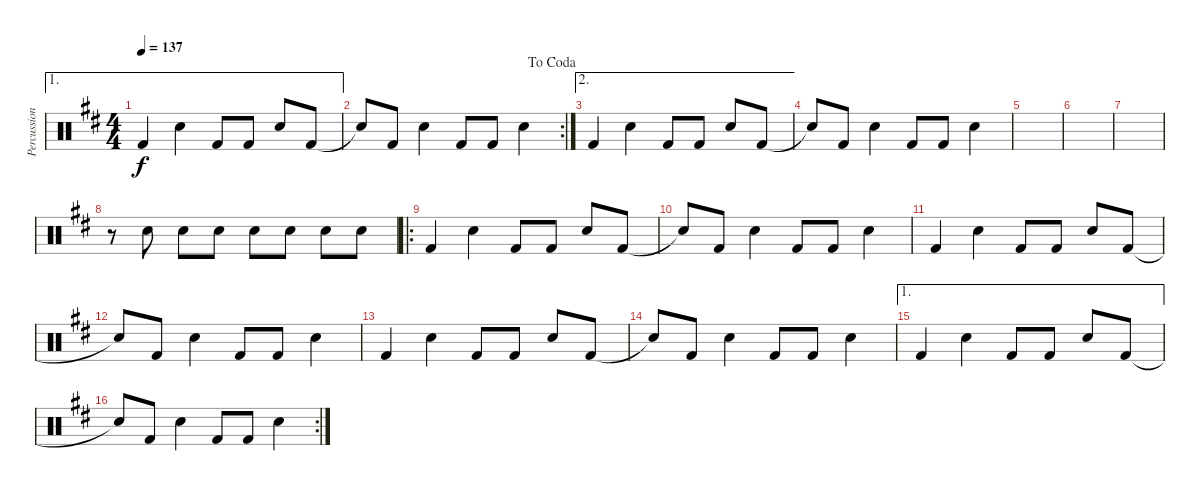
\track ("Percussion" "Percussion") {instrument percussion}
\staff {score}
\articulation defaults
\ae 1
\ts (4 4)
\tempo 137
\clef neutral
\ks d "Kick (hit) 2".4{dy f} "Electric Snare (hit)".4 "Kick (hit) 2".8 "Kick (hit) 2".8 "Electric Snare (hit)".8 "Kick (hit) 2".8
|
\rc 2
\jump dacoda "Snare (hit)"{t}.8 "Kick (hit) 2".8 "Electric Snare (hit)".4 "Kick (hit) 2".8 "Kick (hit) 2".8 "Electric Snare (hit)".4
|
\ae 2 "Kick (hit) 2".4 "Electric Snare (hit)".4 "Kick (hit) 2".8 "Kick (hit) 2".8 "Electric Snare (hit)".8 "Kick (hit) 2".8
|
"Snare (hit)"{t}.8 "Kick (hit) 2".8 "Electric Snare (hit)".4 "Kick (hit) 2".8 "Kick (hit) 2".8 "Electric Snare (hit)".4 |
|
|
|
r.8 "Electric Snare (hit)".8 "Electric Snare (hit)".8 "Electric Snare (hit)".8 "Electric Snare (hit)".8 "Electric Snare (hit)".8 "Electric Snare (hit)".8 "Electric Snare (hit)".8 |
\ro "Kick (hit) 2".4 "Electric Snare (hit)".4 "Kick (hit) 2".8 "Kick (hit) 2".8 "Electric Snare (hit)".8 "Kick (hit) 2".8
|
"Snare (hit)"{t}.8 "Kick (hit) 2".8 "Electric Snare (hit)".4 "Kick (hit) 2".8 "Kick (hit) 2".8 "Electric Snare (hit)".4 |
"Kick (hit) 2".4 "Electric Snare (hit)".4 "Kick (hit) 2".8 "Kick (hit) 2".8 "Electric Snare (hit)".8 "Kick (hit) 2".8 |
"Snare (hit)"{t}.8 "Kick (hit) 2".8 "Electric Snare (hit)".4 "Kick (hit) 2".8 "Kick (hit) 2".8 "Electric Snare (hit)".4 |
"Kick (hit) 2".4 "Electric Snare (hit)".4 "Kick (hit) 2".8 "Kick (hit) 2".8 "Electric Snare (hit)".8 "Kick (hit) 2".8 |
"Snare (hit)"{t}.8 "Kick (hit) 2".8 "Electric Snare (hit)".4 "Kick (hit) 2".8 "Kick (hit) 2".8 "Electric Snare (hit)".4 |
\ae 1 "Kick (hit) 2".4 "Electric Snare (hit)".4 "Kick (hit) 2".8 "Kick (hit) 2".8 "Electric Snare (hit)".8 "Kick (hit) 2".8
|
\rc 2 "Snare (hit)"{t}.8 "Kick (hit) 2".8 "Electric Snare (hit)".4 "Kick (hit) 2".8 "Kick (hit) 2".8 "Electric Snare (hit)".4
